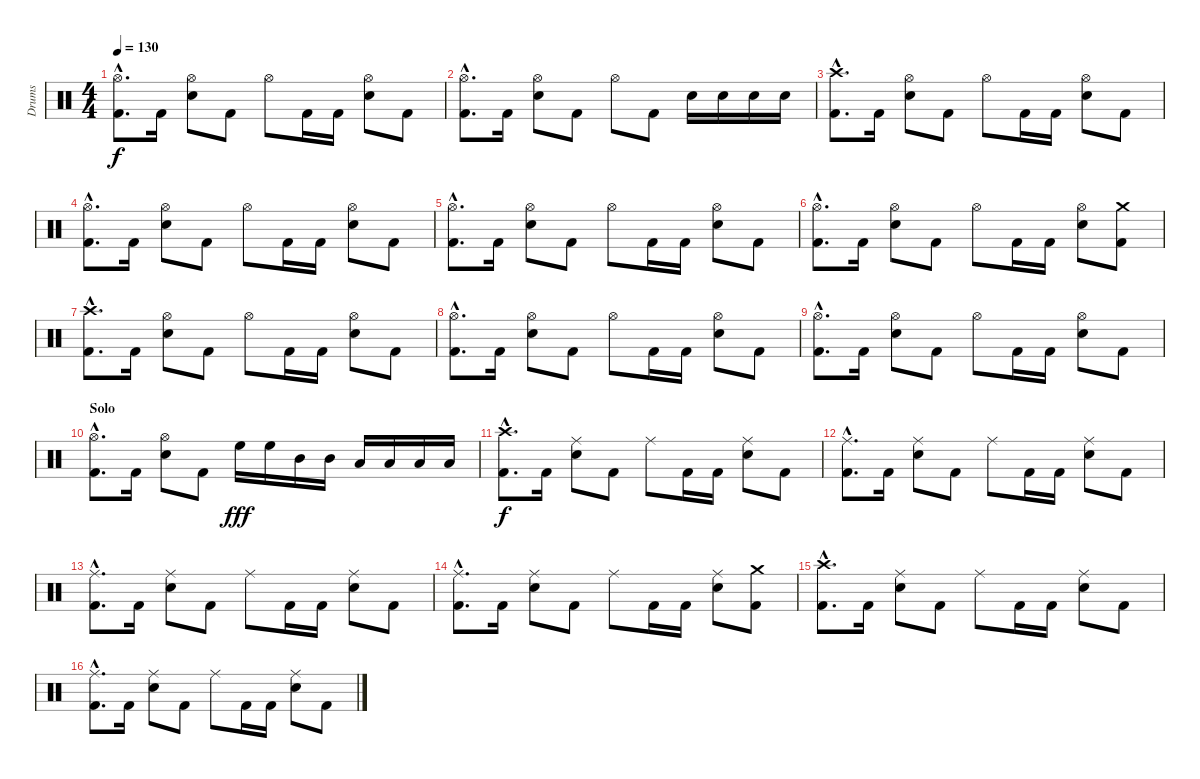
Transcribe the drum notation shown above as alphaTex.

\track ("Drums" "Drums") {instrument percussion}
\staff {score}
\articulation defaults
\ts (4 4)
\tempo 130
\clef neutral
\ks c
("Hi-Hat (open)"{hac} "Kick (hit) 2"{hac}).8{d dy f} "Kick (hit) 2".16 ("Hi-Hat (open)" "Snare (hit) 2").8 "Kick (hit) 2".8 "Hi-Hat (open)".8 "Kick (hit) 2".16 "Kick (hit) 2".16 ("Hi-Hat (open)" "Snare (hit) 2").8 "Kick (hit) 2".8 |
("Hi-Hat (open)"{hac} "Kick (hit) 2"{hac}).8{d} "Kick (hit) 2".16 ("Hi-Hat (open)" "Snare (hit) 2").8 "Kick (hit) 2".8 "Hi-Hat (open)".8 "Kick (hit) 2".8 "Snare (hit) 2".16 "Snare (hit) 2".16 "Snare (hit) 2".16 "Snare (hit) 2".16 |
("Crash high (hit)"{hac} "Kick (hit) 2"{hac}).8{d} "Kick (hit) 2".16 ("Hi-Hat (open)" "Snare (hit) 2").8 "Kick (hit) 2".8 "Hi-Hat (open)".8 "Kick (hit) 2".16 "Kick (hit) 2".16 ("Hi-Hat (open)" "Snare (hit) 2").8 "Kick (hit) 2".8 |
("Hi-Hat (open)"{hac} "Kick (hit) 2"{hac}).8{d} "Kick (hit) 2".16 ("Hi-Hat (open)" "Snare (hit) 2").8 "Kick (hit) 2".8 "Hi-Hat (open)".8 "Kick (hit) 2".16 "Kick (hit) 2".16 ("Hi-Hat (open)" "Snare (hit) 2").8 "Kick (hit) 2".8 |
("Hi-Hat (open)"{hac} "Kick (hit) 2"{hac}).8{d} "Kick (hit) 2".16 ("Hi-Hat (open)" "Snare (hit) 2").8 "Kick (hit) 2".8 "Hi-Hat (open)".8 "Kick (hit) 2".16 "Kick (hit) 2".16 ("Hi-Hat (open)" "Snare (hit) 2").8 "Kick (hit) 2".8 |
("Hi-Hat (open)"{hac} "Kick (hit) 2"{hac}).8{d} "Kick (hit) 2".16 ("Hi-Hat (open)" "Snare (hit) 2").8 "Kick (hit) 2".8 "Hi-Hat (open)".8 "Kick (hit) 2".16 "Kick (hit) 2".16 ("Hi-Hat (open)" "Snare (hit) 2").8 ("Crash medium (hit)" "Kick (hit) 2").8 |
("Crash high (hit)"{hac} "Kick (hit) 2"{hac}).8{d} "Kick (hit) 2".16 ("Hi-Hat (open)" "Snare (hit) 2").8 "Kick (hit) 2".8 "Hi-Hat (open)".8 "Kick (hit) 2".16 "Kick (hit) 2".16 ("Hi-Hat (open)" "Snare (hit) 2").8 "Kick (hit) 2".8 |
("Hi-Hat (open)"{hac} "Kick (hit) 2"{hac}).8{d} "Kick (hit) 2".16 ("Hi-Hat (open)" "Snare (hit) 2").8 "Kick (hit) 2".8 "Hi-Hat (open)".8 "Kick (hit) 2".16 "Kick (hit) 2".16 ("Hi-Hat (open)" "Snare (hit) 2").8 "Kick (hit) 2".8 |
("Hi-Hat (open)"{hac} "Kick (hit) 2"{hac}).8{d} "Kick (hit) 2".16 ("Hi-Hat (open)" "Snare (hit) 2").8 "Kick (hit) 2".8 "Hi-Hat (open)".8 "Kick (hit) 2".16 "Kick (hit) 2".16 ("Hi-Hat (open)" "Snare (hit) 2").8 "Kick (hit) 2".8 |
\section ("" "Solo")
("Hi-Hat (open)"{hac} "Kick (hit) 2"{hac}).8{d} "Kick (hit) 2".16 ("Hi-Hat (open)" "Snare (hit) 2").8 "Kick (hit) 2".8 "High Floor Tom (hit)".16{dy fff} "High Floor Tom (hit)".16 "Mid Tom (hit)".16 "Mid Tom (hit)".16 "Low Tom (hit)".16 "Low Tom (hit)".16 "Low Floor Tom (hit)".16 "Low Floor Tom (hit)".16 |
("Crash high (hit)"{hac} "Kick (hit) 2"{hac}).8{d dy f} "Kick (hit) 2".16 ("Ride (middle)" "Snare (hit) 2").8 "Kick (hit) 2".8 "Ride (middle)".8 "Kick (hit) 2".16 "Kick (hit) 2".16 ("Ride (middle)" "Snare (hit) 2").8 "Kick (hit) 2".8 |
("Ride (middle)"{hac} "Kick (hit) 2"{hac}).8{d} "Kick (hit) 2".16 ("Ride (middle)" "Snare (hit) 2").8 "Kick (hit) 2".8 "Ride (middle)".8 "Kick (hit) 2".16 "Kick (hit) 2".16 ("Ride (middle)" "Snare (hit) 2").8 "Kick (hit) 2".8 |
("Ride (middle)"{hac} "Kick (hit) 2"{hac}).8{d} "Kick (hit) 2".16 ("Ride (middle)" "Snare (hit) 2").8 "Kick (hit) 2".8 "Ride (middle)".8 "Kick (hit) 2".16 "Kick (hit) 2".16 ("Ride (middle)" "Snare (hit) 2").8 "Kick (hit) 2".8 |
("Ride (middle)"{hac} "Kick (hit) 2"{hac}).8{d} "Kick (hit) 2".16 ("Ride (middle)" "Snare (hit) 2").8 "Kick (hit) 2".8 "Ride (middle)".8 "Kick (hit) 2".16 "Kick (hit) 2".16 ("Ride (middle)" "Snare (hit) 2").8 ("Crash medium (hit)" "Kick (hit) 2").8 |
("Crash high (hit)"{hac} "Kick (hit) 2"{hac}).8{d} "Kick (hit) 2".16 ("Ride (middle)" "Snare (hit) 2").8 "Kick (hit) 2".8 "Ride (middle)".8 "Kick (hit) 2".16 "Kick (hit) 2".16 ("Ride (middle)" "Snare (hit) 2").8 "Kick (hit) 2".8 |
("Ride (middle)"{hac} "Kick (hit) 2"{hac}).8{d} "Kick (hit) 2".16 ("Ride (middle)" "Snare (hit) 2").8 "Kick (hit) 2".8 "Ride (middle)".8 "Kick (hit) 2".16 "Kick (hit) 2".16 ("Ride (middle)" "Snare (hit) 2").8 "Kick (hit) 2".8
